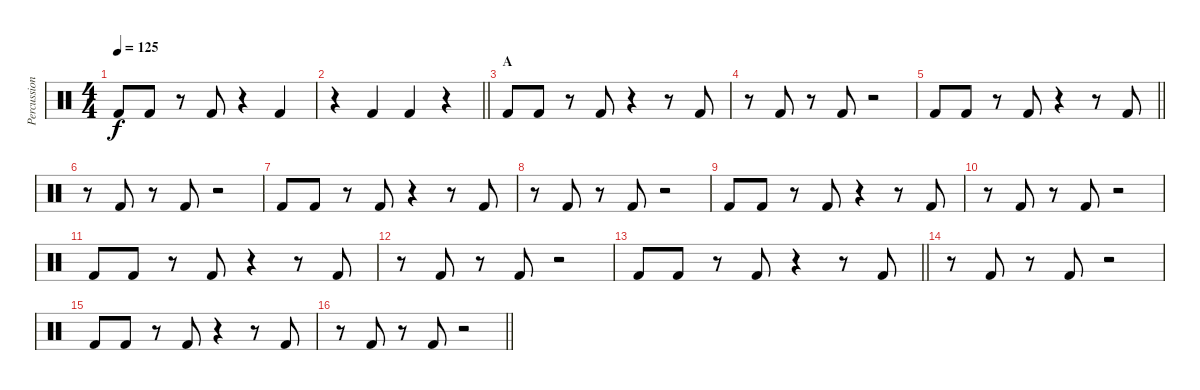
\track ("Percussion (Bass Drum)" "Percussion") {instrument percussion}
\staff {score}
\articulation defaults
\ts (4 4)
\tempo 125
\clef neutral
\ks c "Kick (hit) 2".8{dy f} "Kick (hit) 2".8
r.8 "Kick (hit) 2".8 r.4 "Kick (hit) 2".4 |
\barLineRight lightlight
r.4 "Kick (hit) 2".4 "Kick (hit) 2".4 r.4 |
\section ("" "A")
"Kick (hit) 2".8 "Kick (hit) 2".8 r.8 "Kick (hit) 2".8 r.4 r.8 "Kick (hit) 2".8 |
r.8 "Kick (hit) 2".8 r.8 "Kick (hit) 2".8 r.2 |
\barLineRight lightlight "Kick (hit) 2".8 "Kick (hit) 2".8
r.8 "Kick (hit) 2".8 r.4 r.8 "Kick (hit) 2".8 |
r.8 "Kick (hit) 2".8 r.8 "Kick (hit) 2".8 r.2 |
"Kick (hit) 2".8 "Kick (hit) 2".8 r.8 "Kick (hit) 2".8 r.4 r.8 "Kick (hit) 2".8 |
r.8 "Kick (hit) 2".8 r.8 "Kick (hit) 2".8 r.2 |
"Kick (hit) 2".8 "Kick (hit) 2".8 r.8 "Kick (hit) 2".8 r.4 r.8 "Kick (hit) 2".8 |
r.8 "Kick (hit) 2".8 r.8 "Kick (hit) 2".8 r.2 |
"Kick (hit) 2".8 "Kick (hit) 2".8 r.8 "Kick (hit) 2".8 r.4 r.8 "Kick (hit) 2".8 |
r.8 "Kick (hit) 2".8 r.8 "Kick (hit) 2".8 r.2 |
\barLineRight lightlight "Kick (hit) 2".8 "Kick (hit) 2".8
r.8 "Kick (hit) 2".8 r.4 r.8 "Kick (hit) 2".8 |
r.8 "Kick (hit) 2".8 r.8 "Kick (hit) 2".8 r.2 |
"Kick (hit) 2".8 "Kick (hit) 2".8 r.8 "Kick (hit) 2".8 r.4 r.8 "Kick (hit) 2".8 |
\barLineRight lightlight
r.8 "Kick (hit) 2".8 r.8 "Kick (hit) 2".8 r.2
